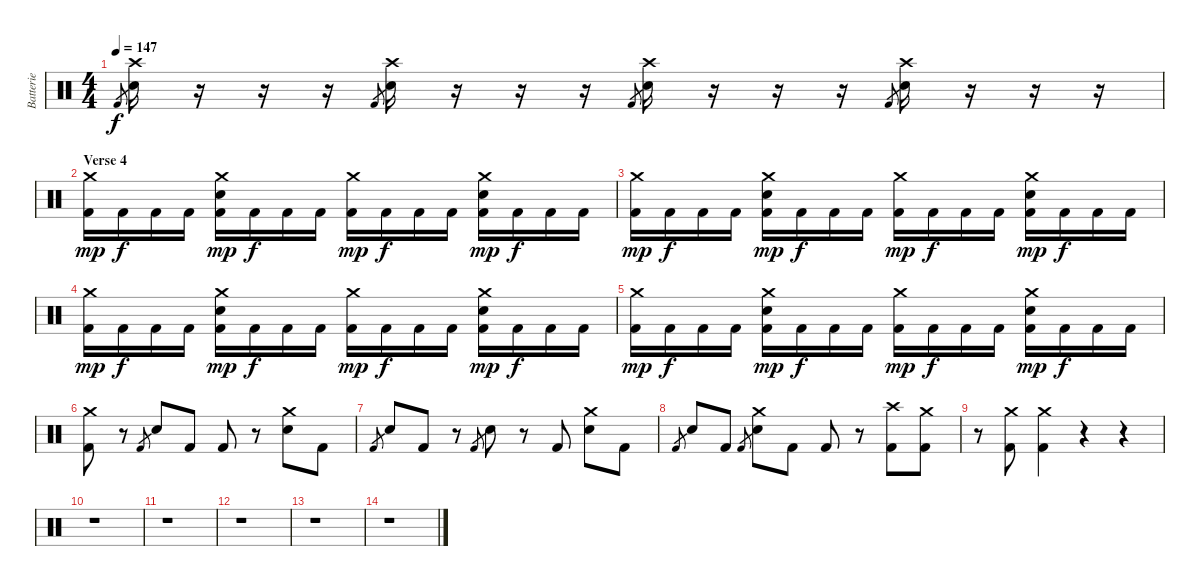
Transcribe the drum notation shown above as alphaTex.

\track ("Batterie" "Batterie") {instrument percussion}
\staff {score}
\articulation defaults
\ts (4 4)
\tempo 147
\clef neutral
\ks c "Kick (hit) 2".8{gr dy f}
("Crash high (hit)" "Electric Snare (hit)").16 r.16 r.16 r.16 "Kick (hit) 2".8{gr} ("Crash high (hit)" "Electric Snare (hit)").16 r.16 r.16 r.16 "Kick (hit) 2".8{gr} ("Crash high (hit)" "Electric Snare (hit)").16 r.16 r.16 r.16 "Kick (hit) 2".8{gr} ("Crash high (hit)" "Electric Snare (hit)").16 r.16 r.16 r.16 |
\section ("" "Verse 4")
("Crash medium (hit)" "Kick (hit) 2").16{dy mp} "Kick (hit) 2".16{dy f} "Kick (hit) 2".16 "Kick (hit) 2".16 ("Crash medium (hit)" "Kick (hit) 2" "Electric Snare (hit)").16{dy mp} "Kick (hit) 2".16{dy f} "Kick (hit) 2".16 "Kick (hit) 2".16 ("Crash medium (hit)" "Kick (hit) 2").16{dy mp} "Kick (hit) 2".16{dy f} "Kick (hit) 2".16 "Kick (hit) 2".16 ("Crash medium (hit)" "Kick (hit) 2" "Electric Snare (hit)").16{dy mp} "Kick (hit) 2".16{dy f} "Kick (hit) 2".16 "Kick (hit) 2".16 |
("Crash medium (hit)" "Kick (hit) 2").16{dy mp} "Kick (hit) 2".16{dy f} "Kick (hit) 2".16 "Kick (hit) 2".16 ("Crash medium (hit)" "Kick (hit) 2" "Electric Snare (hit)").16{dy mp} "Kick (hit) 2".16{dy f} "Kick (hit) 2".16 "Kick (hit) 2".16 ("Crash medium (hit)" "Kick (hit) 2").16{dy mp} "Kick (hit) 2".16{dy f} "Kick (hit) 2".16 "Kick (hit) 2".16 ("Crash medium (hit)" "Kick (hit) 2" "Electric Snare (hit)").16{dy mp} "Kick (hit) 2".16{dy f} "Kick (hit) 2".16 "Kick (hit) 2".16 |
("Crash medium (hit)" "Kick (hit) 2").16{dy mp} "Kick (hit) 2".16{dy f} "Kick (hit) 2".16 "Kick (hit) 2".16 ("Crash medium (hit)" "Kick (hit) 2" "Electric Snare (hit)").16{dy mp} "Kick (hit) 2".16{dy f} "Kick (hit) 2".16 "Kick (hit) 2".16 ("Crash medium (hit)" "Kick (hit) 2").16{dy mp} "Kick (hit) 2".16{dy f} "Kick (hit) 2".16 "Kick (hit) 2".16 ("Crash medium (hit)" "Kick (hit) 2" "Electric Snare (hit)").16{dy mp} "Kick (hit) 2".16{dy f} "Kick (hit) 2".16 "Kick (hit) 2".16 |
("Crash medium (hit)" "Kick (hit) 2").16{dy mp} "Kick (hit) 2".16{dy f} "Kick (hit) 2".16 "Kick (hit) 2".16 ("Crash medium (hit)" "Kick (hit) 2" "Electric Snare (hit)").16{dy mp} "Kick (hit) 2".16{dy f} "Kick (hit) 2".16 "Kick (hit) 2".16 ("Crash medium (hit)" "Kick (hit) 2").16{dy mp} "Kick (hit) 2".16{dy f} "Kick (hit) 2".16 "Kick (hit) 2".16 ("Crash medium (hit)" "Kick (hit) 2" "Electric Snare (hit)").16{dy mp} "Kick (hit) 2".16{dy f} "Kick (hit) 2".16 "Kick (hit) 2".16 |
("Crash medium (hit)" "Kick (hit) 2").8 r.8 "Kick (hit) 2".8{gr} "Electric Snare (hit)".8 "Kick (hit) 2".8 "Kick (hit) 2".8 r.8 ("Crash medium (hit)" "Electric Snare (hit)").8 "Kick (hit) 2".8 |
"Kick (hit) 2".8{gr} "Electric Snare (hit)".8 "Kick (hit) 2".8 r.8 "Kick (hit) 2".8{gr} "Electric Snare (hit)".8 r.8 "Kick (hit) 2".8 ("Crash medium (hit)" "Electric Snare (hit)").8 "Kick (hit) 2".8 |
"Kick (hit) 2".8{gr} "Electric Snare (hit)".8 "Kick (hit) 2".8 "Kick (hit) 2".8{gr} ("Crash medium (hit)" "Electric Snare (hit)").8 "Kick (hit) 2".8 "Kick (hit) 2".8 r.8 ("Crash high (hit)" "Kick (hit) 2").8 ("Crash medium (hit)" "Kick (hit) 2").8 |
r.8 ("Crash medium (hit)" "Kick (hit) 2").8 ("Crash medium (hit)" "Kick (hit) 2").4 r.4 r.4 |
r.1 |
r.1 |
r.1 |
r.1 |
r.1
